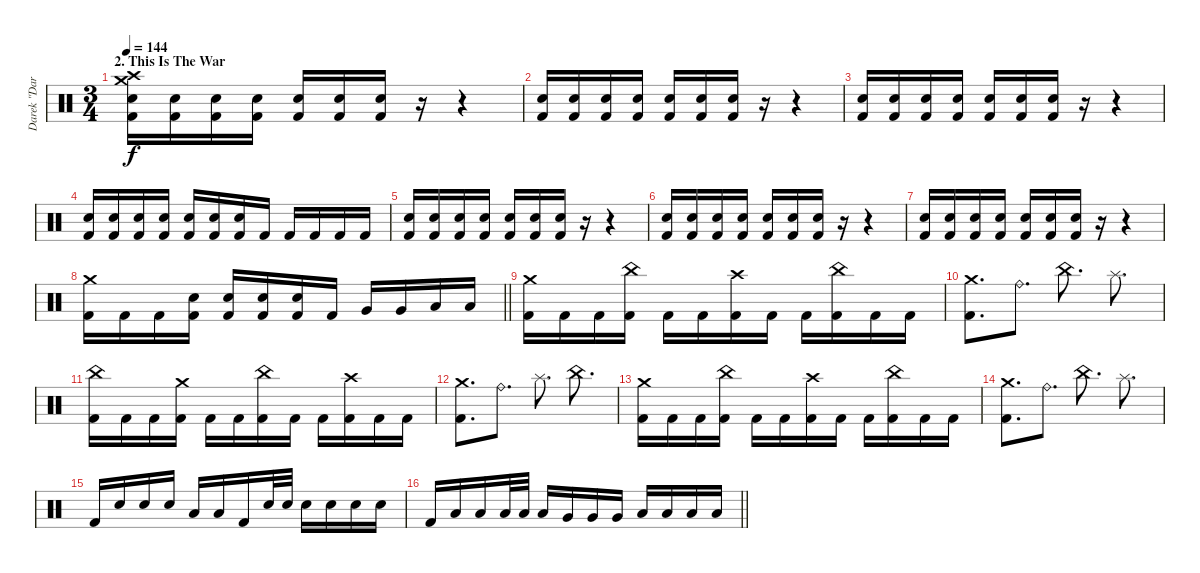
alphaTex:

\track ("Darek \"Daray\" Brzozowski " "Darek \"Dar") {instrument percussion}
\staff {score}
\articulation defaults
\ts (3 4)
\section ("" "2. This Is The War")
\tempo 144
\clef neutral
\ks c
("Crash high (hit)" "Crash medium (hit)" "Electric Snare (hit)" "Kick (hit) 2").16{dy f} ("Electric Snare (hit)" "Kick (hit) 2").16 ("Electric Snare (hit)" "Kick (hit) 2").16 ("Electric Snare (hit)" "Kick (hit) 2").16 ("Electric Snare (hit)" "Kick (hit) 2").16 ("Electric Snare (hit)" "Kick (hit) 2").16 ("Electric Snare (hit)" "Kick (hit) 2").16 r.16 r.4 |
("Electric Snare (hit)" "Kick (hit) 2").16 ("Electric Snare (hit)" "Kick (hit) 2").16 ("Electric Snare (hit)" "Kick (hit) 2").16 ("Electric Snare (hit)" "Kick (hit) 2").16 ("Electric Snare (hit)" "Kick (hit) 2").16 ("Electric Snare (hit)" "Kick (hit) 2").16 ("Electric Snare (hit)" "Kick (hit) 2").16 r.16 r.4 |
("Electric Snare (hit)" "Kick (hit) 2").16 ("Electric Snare (hit)" "Kick (hit) 2").16 ("Electric Snare (hit)" "Kick (hit) 2").16 ("Electric Snare (hit)" "Kick (hit) 2").16 ("Electric Snare (hit)" "Kick (hit) 2").16 ("Electric Snare (hit)" "Kick (hit) 2").16 ("Electric Snare (hit)" "Kick (hit) 2").16 r.16 r.4 |
("Electric Snare (hit)" "Kick (hit) 2").16 ("Electric Snare (hit)" "Kick (hit) 2").16 ("Electric Snare (hit)" "Kick (hit) 2").16 ("Electric Snare (hit)" "Kick (hit) 2").16 ("Electric Snare (hit)" "Kick (hit) 2").16 ("Electric Snare (hit)" "Kick (hit) 2").16 ("Electric Snare (hit)" "Kick (hit) 2").16 "Kick (hit) 2".16 "Kick (hit) 2".16 "Kick (hit) 2".16 "Kick (hit) 2".16 "Kick (hit) 2".16 |
("Electric Snare (hit)" "Kick (hit) 2").16 ("Electric Snare (hit)" "Kick (hit) 2").16 ("Electric Snare (hit)" "Kick (hit) 2").16 ("Electric Snare (hit)" "Kick (hit) 2").16 ("Electric Snare (hit)" "Kick (hit) 2").16 ("Electric Snare (hit)" "Kick (hit) 2").16 ("Electric Snare (hit)" "Kick (hit) 2").16 r.16 r.4 |
("Electric Snare (hit)" "Kick (hit) 2").16 ("Electric Snare (hit)" "Kick (hit) 2").16 ("Electric Snare (hit)" "Kick (hit) 2").16 ("Electric Snare (hit)" "Kick (hit) 2").16 ("Electric Snare (hit)" "Kick (hit) 2").16 ("Electric Snare (hit)" "Kick (hit) 2").16 ("Electric Snare (hit)" "Kick (hit) 2").16 r.16 r.4 |
("Electric Snare (hit)" "Kick (hit) 2").16 ("Electric Snare (hit)" "Kick (hit) 2").16 ("Electric Snare (hit)" "Kick (hit) 2").16 ("Electric Snare (hit)" "Kick (hit) 2").16 ("Electric Snare (hit)" "Kick (hit) 2").16 ("Electric Snare (hit)" "Kick (hit) 2").16 ("Electric Snare (hit)" "Kick (hit) 2").16 r.16 r.4 |
\barLineRight lightlight
("Crash medium (hit)" "Kick (hit) 2").16 "Kick (hit) 2".16 "Kick (hit) 2".16 ("Electric Snare (hit)" "Kick (hit) 2").16 ("Electric Snare (hit)" "Kick (hit) 2").16 ("Electric Snare (hit)" "Kick (hit) 2").16 ("Electric Snare (hit)" "Kick (hit) 2").16 "Kick (hit) 2".16 "Very Low Tom (hit)".16 "Very Low Tom (hit)".16 "Low Floor Tom (hit)".16 "Low Floor Tom (hit)".16 |
("Crash medium (hit)" "Kick (hit) 2").16 "Kick (hit) 2".16 "Kick (hit) 2".16 ("China (hit)" "Kick (hit) 2").16 "Kick (hit) 2".16 "Kick (hit) 2".16 ("Crash high (hit)" "Kick (hit) 2").16 "Kick (hit) 2".16 "Kick (hit) 2".16 ("China (hit)" "Kick (hit) 2").16 "Kick (hit) 2".16 "Kick (hit) 2".16 |
("Crash medium (hit)" "Kick (hit) 2").8{d} "Ride (bell)".8{d} "China (hit)".8{d} "Splash (hit)".8{d} |
("China (hit)" "Kick (hit) 2").16 "Kick (hit) 2".16 "Kick (hit) 2".16 ("Crash medium (hit)" "Kick (hit) 2").16 "Kick (hit) 2".16 "Kick (hit) 2".16 ("China (hit)" "Kick (hit) 2").16 "Kick (hit) 2".16 "Kick (hit) 2".16 ("Crash high (hit)" "Kick (hit) 2").16 "Kick (hit) 2".16 "Kick (hit) 2".16 |
("Crash medium (hit)" "Kick (hit) 2").8{d} "Ride (bell)".8{d} "Splash (hit)".8{d} "China (hit)".8{d} |
("Crash medium (hit)" "Kick (hit) 2").16 "Kick (hit) 2".16 "Kick (hit) 2".16 ("China (hit)" "Kick (hit) 2").16 "Kick (hit) 2".16 "Kick (hit) 2".16 ("Crash high (hit)" "Kick (hit) 2").16 "Kick (hit) 2".16 "Kick (hit) 2".16 ("China (hit)" "Kick (hit) 2").16 "Kick (hit) 2".16 "Kick (hit) 2".16 |
("Crash medium (hit)" "Kick (hit) 2").8{d} "Ride (bell)".8{d} "China (hit)".8{d} "Splash (hit)".8{d} |
"Kick (hit) 2".16 "Electric Snare (hit)".16 "Electric Snare (hit)".16 "Electric Snare (hit)".16 "Low Floor Tom (hit)".16 "Low Floor Tom (hit)".16 "Kick (hit) 2".16 "Electric Snare (hit)".32 "Electric Snare (hit)".32 "Electric Snare (hit)".16 "Electric Snare (hit)".16 "Electric Snare (hit)".16 "Electric Snare (hit)".16 |
\barLineRight lightlight "Kick (hit) 2".16 "Low Tom (hit)".16 "Low Tom (hit)".16 "Low Tom (hit)".32 "Low Tom (hit)".32 "Low Tom (hit)".16 "Very Low Tom (hit)".16 "Very Low Tom (hit)".16 "Very Low Tom (hit)".16 "Low Floor Tom (hit)".16 "Low Floor Tom (hit)".16 "Low Floor Tom (hit)".16 "Low Floor Tom (hit)".16
